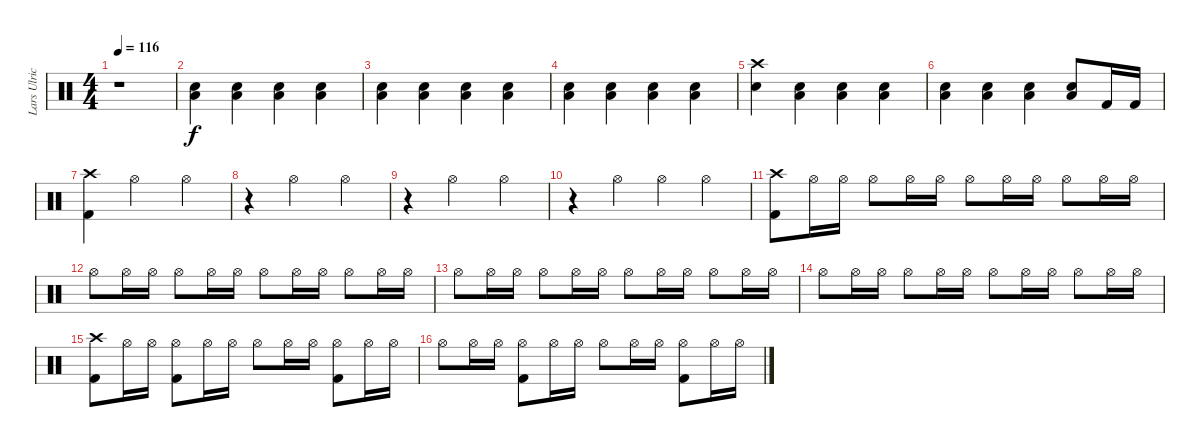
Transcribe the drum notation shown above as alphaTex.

\track ("Lars Ulrich" "Lars Ulric") {instrument percussion}
\staff {score}
\articulation defaults
\ts (4 4)
\tempo 116
\clef neutral
\ks c
r.1{dy f} |
("Electric Snare (hit)" "Low Floor Tom (hit)").4 ("Electric Snare (hit)" "Low Floor Tom (hit)").4 ("Electric Snare (hit)" "Low Floor Tom (hit)").4 ("Electric Snare (hit)" "Low Floor Tom (hit)").4 |
("Electric Snare (hit)" "Low Floor Tom (hit)").4 ("Electric Snare (hit)" "Low Floor Tom (hit)").4 ("Electric Snare (hit)" "Low Floor Tom (hit)").4 ("Electric Snare (hit)" "Low Floor Tom (hit)").4 |
("Electric Snare (hit)" "Low Floor Tom (hit)").4 ("Electric Snare (hit)" "Low Floor Tom (hit)").4 ("Electric Snare (hit)" "Low Floor Tom (hit)").4 ("Electric Snare (hit)" "Low Floor Tom (hit)").4 |
("Crash high (hit)" "Electric Snare (hit)").4 ("Electric Snare (hit)" "Low Floor Tom (hit)").4 ("Electric Snare (hit)" "Low Floor Tom (hit)").4 ("Electric Snare (hit)" "Low Floor Tom (hit)").4 |
("Electric Snare (hit)" "Low Floor Tom (hit)").4 ("Electric Snare (hit)" "Low Floor Tom (hit)").4 ("Electric Snare (hit)" "Low Floor Tom (hit)").4 ("Electric Snare (hit)" "Low Floor Tom (hit)").8 "Kick (hit) 2".16 "Kick (hit) 2".16 |
("Crash high (hit)" "Kick (hit) 2").4 "Hi-Hat (open)".2 "Hi-Hat (open)".4 |
r.4 "Hi-Hat (open)".2 "Hi-Hat (open)".4 |
r.4 "Hi-Hat (open)".2 "Hi-Hat (open)".4 |
r.4 "Hi-Hat (open)".4 "Hi-Hat (open)".4 "Hi-Hat (open)".4 |
("Crash high (hit)" "Kick (hit) 2").8 "Hi-Hat (open)".16 "Hi-Hat (open)".16 "Hi-Hat (open)".8 "Hi-Hat (open)".16 "Hi-Hat (open)".16 "Hi-Hat (open)".8 "Hi-Hat (open)".16 "Hi-Hat (open)".16 "Hi-Hat (open)".8 "Hi-Hat (open)".16 "Hi-Hat (open)".16 |
"Hi-Hat (open)".8 "Hi-Hat (open)".16 "Hi-Hat (open)".16 "Hi-Hat (open)".8 "Hi-Hat (open)".16 "Hi-Hat (open)".16 "Hi-Hat (open)".8 "Hi-Hat (open)".16 "Hi-Hat (open)".16 "Hi-Hat (open)".8 "Hi-Hat (open)".16 "Hi-Hat (open)".16 |
"Hi-Hat (open)".8 "Hi-Hat (open)".16 "Hi-Hat (open)".16 "Hi-Hat (open)".8 "Hi-Hat (open)".16 "Hi-Hat (open)".16 "Hi-Hat (open)".8 "Hi-Hat (open)".16 "Hi-Hat (open)".16 "Hi-Hat (open)".8 "Hi-Hat (open)".16 "Hi-Hat (open)".16 |
"Hi-Hat (open)".8 "Hi-Hat (open)".16 "Hi-Hat (open)".16 "Hi-Hat (open)".8 "Hi-Hat (open)".16 "Hi-Hat (open)".16 "Hi-Hat (open)".8 "Hi-Hat (open)".16 "Hi-Hat (open)".16 "Hi-Hat (open)".8 "Hi-Hat (open)".16 "Hi-Hat (open)".16 |
("Crash high (hit)" "Kick (hit) 2").8 "Hi-Hat (open)".16 "Hi-Hat (open)".16 ("Hi-Hat (open)" "Kick (hit) 2").8 "Hi-Hat (open)".16 "Hi-Hat (open)".16 "Hi-Hat (open)".8 "Hi-Hat (open)".16 "Hi-Hat (open)".16 ("Hi-Hat (open)" "Kick (hit) 2").8 "Hi-Hat (open)".16 "Hi-Hat (open)".16 |
"Hi-Hat (open)".8 "Hi-Hat (open)".16 "Hi-Hat (open)".16 ("Hi-Hat (open)" "Kick (hit) 2").8 "Hi-Hat (open)".16 "Hi-Hat (open)".16 "Hi-Hat (open)".8 "Hi-Hat (open)".16 "Hi-Hat (open)".16 ("Hi-Hat (open)" "Kick (hit) 2").8 "Hi-Hat (open)".16 "Hi-Hat (open)".16
